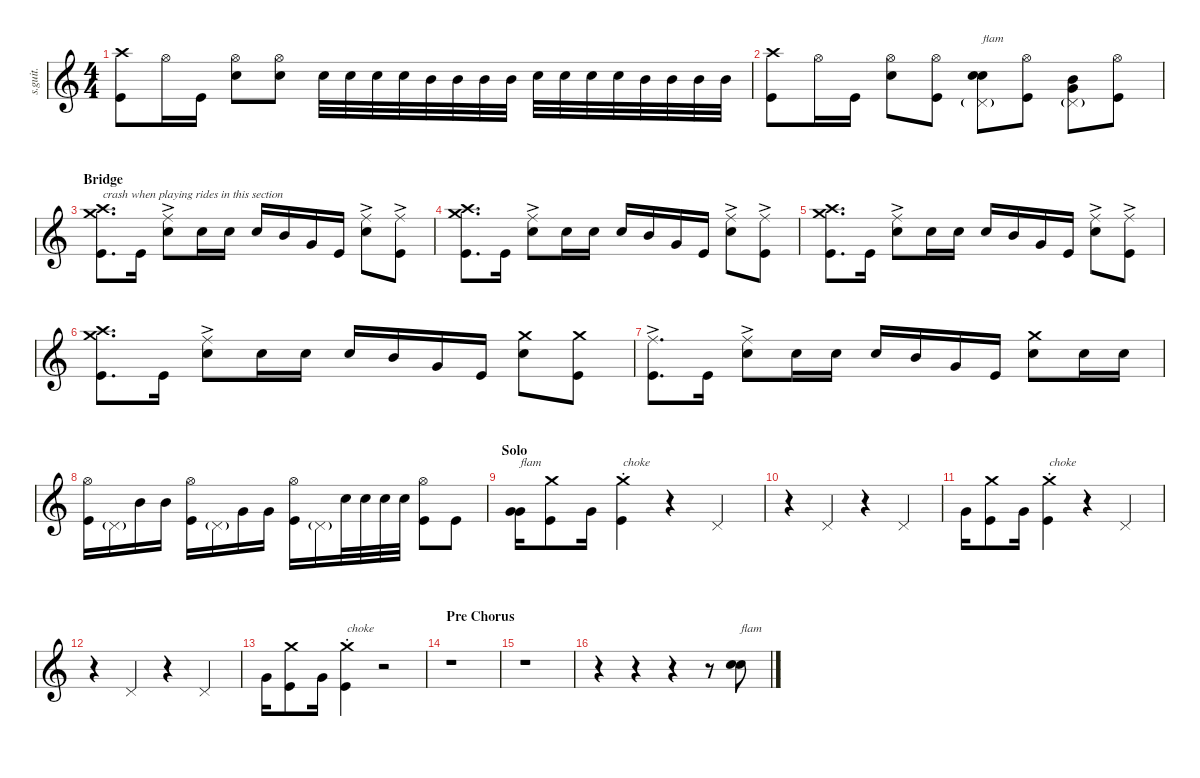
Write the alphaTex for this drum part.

\defaultSystemsLayout 4
\hideDynamics
\bracketExtendMode nobrackets
\track ("Matt Helders" "s.guit.") {instrument percussion}
\staff {score}
\articulation defaults
\ts (4 4)
\tempo (97 hide)
\clef g2
\ks c
("Crash high (hit)" "Kick (hit)").8{lyrics (0 "") lyrics (1 "") lyrics (2 "") lyrics (3 "") lyrics (4 "") dy f} "Hi-Hat (open)".16{lyrics (0 "") lyrics (1 "") lyrics (2 "") lyrics (3 "") lyrics (4 "")} "Kick (hit)".16{lyrics (0 "") lyrics (1 "") lyrics (2 "") lyrics (3 "") lyrics (4 "")} ("Hi-Hat (open)" "Snare (hit) 2").8{lyrics (0 "") lyrics (1 "") lyrics (2 "") lyrics (3 "") lyrics (4 "")} ("Hi-Hat (open)" "Snare (hit) 2").8{lyrics (0 "") lyrics (1 "") lyrics (2 "") lyrics (3 "") lyrics (4 "")} "Snare (hit) 2".32{lyrics (0 "") lyrics (1 "") lyrics (2 "") lyrics (3 "") lyrics (4 "")} "Snare (hit) 2".32{lyrics (0 "") lyrics (1 "") lyrics (2 "") lyrics (3 "") lyrics (4 "")} "Snare (hit) 2".32{lyrics (0 "") lyrics (1 "") lyrics (2 "") lyrics (3 "") lyrics (4 "")} "Snare (hit) 2".32{lyrics (0 "") lyrics (1 "") lyrics (2 "") lyrics (3 "") lyrics (4 "")} "Mid Tom (hit)".32{lyrics (0 "") lyrics (1 "") lyrics (2 "") lyrics (3 "") lyrics (4 "")} "Mid Tom (hit)".32{lyrics (0 "") lyrics (1 "") lyrics (2 "") lyrics (3 "") lyrics (4 "")} "Mid Tom (hit)".32{lyrics (0 "") lyrics (1 "") lyrics (2 "") lyrics (3 "") lyrics (4 "")} "Mid Tom (hit)".32{lyrics (0 "") lyrics (1 "") lyrics (2 "") lyrics (3 "") lyrics (4 "")} "Snare (hit) 2".32{lyrics (0 "") lyrics (1 "") lyrics (2 "") lyrics (3 "") lyrics (4 "")} "Snare (hit) 2".32{lyrics (0 "") lyrics (1 "") lyrics (2 "") lyrics (3 "") lyrics (4 "")} "Snare (hit) 2".32{lyrics (0 "") lyrics (1 "") lyrics (2 "") lyrics (3 "") lyrics (4 "")} "Snare (hit) 2".32{lyrics (0 "") lyrics (1 "") lyrics (2 "") lyrics (3 "") lyrics (4 "")} "Mid Tom (hit)".32{lyrics (0 "") lyrics (1 "") lyrics (2 "") lyrics (3 "") lyrics (4 "")} "Mid Tom (hit)".32{lyrics (0 "") lyrics (1 "") lyrics (2 "") lyrics (3 "") lyrics (4 "")} "Mid Tom (hit)".32{lyrics (0 "") lyrics (1 "") lyrics (2 "") lyrics (3 "") lyrics (4 "")} "Mid Tom (hit)".32{lyrics (0 "") lyrics (1 "") lyrics (2 "") lyrics (3 "") lyrics (4 "")} |
("Crash high (hit)" "Kick (hit)").8{lyrics (0 "") lyrics (1 "") lyrics (2 "") lyrics (3 "") lyrics (4 "")} "Hi-Hat (open)".16{lyrics (0 "") lyrics (1 "") lyrics (2 "") lyrics (3 "") lyrics (4 "")} "Kick (hit)".16{lyrics (0 "") lyrics (1 "") lyrics (2 "") lyrics (3 "") lyrics (4 "")} ("Hi-Hat (open)" "Snare (hit) 2").8{lyrics (0 "") lyrics (1 "") lyrics (2 "") lyrics (3 "") lyrics (4 "")} ("Hi-Hat (open)" "Kick (hit)").8{lyrics (0 "") lyrics (1 "") lyrics (2 "") lyrics (3 "") lyrics (4 "")} ("Snare (hit) 2" "Snare (hit) 2" "Pedal Hi-Hat (hit)"{g}).8{bd 30 txt "flam" lyrics (0 "") lyrics (1 "") lyrics (2 "") lyrics (3 "") lyrics (4 "")} ("Hi-Hat (open)" "Kick (hit)").8{lyrics (0 "") lyrics (1 "") lyrics (2 "") lyrics (3 "") lyrics (4 "")} ("Mid Tom (hit)" "Very Low Tom (hit)" "Pedal Hi-Hat (hit)"{g}).8{bd 30 lyrics (0 "") lyrics (1 "") lyrics (2 "") lyrics (3 "") lyrics (4 "")} ("Hi-Hat (open)" "Kick (hit)").8{lyrics (0 "") lyrics (1 "") lyrics (2 "") lyrics (3 "") lyrics (4 "")} |
\section ("" "Bridge")
("Crash high (hit)" "Crash medium (hit)" "Kick (hit)").8{d txt "crash when playing rides in this section" lyrics (0 "") lyrics (1 "") lyrics (2 "") lyrics (3 "") lyrics (4 "")} "Kick (hit)".16{lyrics (0 "") lyrics (1 "") lyrics (2 "") lyrics (3 "") lyrics (4 "")} ("Ride (middle)"{ac} "Snare (hit) 2").8{lyrics (0 "") lyrics (1 "") lyrics (2 "") lyrics (3 "") lyrics (4 "")} "Snare (hit) 2".16{lyrics (0 "") lyrics (1 "") lyrics (2 "") lyrics (3 "") lyrics (4 "")} "Snare (hit) 2".16{lyrics (0 "") lyrics (1 "") lyrics (2 "") lyrics (3 "") lyrics (4 "")} "Snare (hit) 2".16{lyrics (0 "") lyrics (1 "") lyrics (2 "") lyrics (3 "") lyrics (4 "")} "Mid Tom (hit)".16{lyrics (0 "") lyrics (1 "") lyrics (2 "") lyrics (3 "") lyrics (4 "")} "Very Low Tom (hit)".16{lyrics (0 "") lyrics (1 "") lyrics (2 "") lyrics (3 "") lyrics (4 "")} "Kick (hit)".16{lyrics (0 "") lyrics (1 "") lyrics (2 "") lyrics (3 "") lyrics (4 "")} ("Ride (middle)"{ac} "Snare (hit) 2").8{lyrics (0 "") lyrics (1 "") lyrics (2 "") lyrics (3 "") lyrics (4 "")} ("Ride (middle)"{ac} "Kick (hit)").8{lyrics (0 "") lyrics (1 "") lyrics (2 "") lyrics (3 "") lyrics (4 "")} |
("Crash high (hit)" "Crash medium (hit)" "Kick (hit)").8{d lyrics (0 "") lyrics (1 "") lyrics (2 "") lyrics (3 "") lyrics (4 "")} "Kick (hit)".16{lyrics (0 "") lyrics (1 "") lyrics (2 "") lyrics (3 "") lyrics (4 "")} ("Ride (middle)"{ac} "Snare (hit) 2").8{lyrics (0 "") lyrics (1 "") lyrics (2 "") lyrics (3 "") lyrics (4 "")} "Snare (hit) 2".16{lyrics (0 "") lyrics (1 "") lyrics (2 "") lyrics (3 "") lyrics (4 "")} "Snare (hit) 2".16{lyrics (0 "") lyrics (1 "") lyrics (2 "") lyrics (3 "") lyrics (4 "")} "Snare (hit) 2".16{lyrics (0 "") lyrics (1 "") lyrics (2 "") lyrics (3 "") lyrics (4 "")} "Mid Tom (hit)".16{lyrics (0 "") lyrics (1 "") lyrics (2 "") lyrics (3 "") lyrics (4 "")} "Very Low Tom (hit)".16{lyrics (0 "") lyrics (1 "") lyrics (2 "") lyrics (3 "") lyrics (4 "")} "Kick (hit)".16{lyrics (0 "") lyrics (1 "") lyrics (2 "") lyrics (3 "") lyrics (4 "")} ("Ride (middle)"{ac} "Snare (hit) 2").8{lyrics (0 "") lyrics (1 "") lyrics (2 "") lyrics (3 "") lyrics (4 "")} ("Ride (middle)"{ac} "Kick (hit)").8{lyrics (0 "") lyrics (1 "") lyrics (2 "") lyrics (3 "") lyrics (4 "")} |
("Crash high (hit)" "Crash medium (hit)" "Kick (hit)").8{d lyrics (0 "") lyrics (1 "") lyrics (2 "") lyrics (3 "") lyrics (4 "")} "Kick (hit)".16{lyrics (0 "") lyrics (1 "") lyrics (2 "") lyrics (3 "") lyrics (4 "")} ("Ride (middle)"{ac} "Snare (hit) 2").8{lyrics (0 "") lyrics (1 "") lyrics (2 "") lyrics (3 "") lyrics (4 "")} "Snare (hit) 2".16{lyrics (0 "") lyrics (1 "") lyrics (2 "") lyrics (3 "") lyrics (4 "")} "Snare (hit) 2".16{lyrics (0 "") lyrics (1 "") lyrics (2 "") lyrics (3 "") lyrics (4 "")} "Snare (hit) 2".16{lyrics (0 "") lyrics (1 "") lyrics (2 "") lyrics (3 "") lyrics (4 "")} "Mid Tom (hit)".16{lyrics (0 "") lyrics (1 "") lyrics (2 "") lyrics (3 "") lyrics (4 "")} "Very Low Tom (hit)".16{lyrics (0 "") lyrics (1 "") lyrics (2 "") lyrics (3 "") lyrics (4 "")} "Kick (hit)".16{lyrics (0 "") lyrics (1 "") lyrics (2 "") lyrics (3 "") lyrics (4 "")} ("Ride (middle)"{ac} "Snare (hit) 2").8{lyrics (0 "") lyrics (1 "") lyrics (2 "") lyrics (3 "") lyrics (4 "")} ("Ride (middle)"{ac} "Kick (hit)").8{lyrics (0 "") lyrics (1 "") lyrics (2 "") lyrics (3 "") lyrics (4 "")} |
("Crash high (hit)" "Crash medium (hit)" "Kick (hit)").8{d lyrics (0 "") lyrics (1 "") lyrics (2 "") lyrics (3 "") lyrics (4 "")} "Kick (hit)".16{lyrics (0 "") lyrics (1 "") lyrics (2 "") lyrics (3 "") lyrics (4 "")} ("Ride (middle)"{ac} "Snare (hit) 2").8{lyrics (0 "") lyrics (1 "") lyrics (2 "") lyrics (3 "") lyrics (4 "")} "Snare (hit) 2".16{lyrics (0 "") lyrics (1 "") lyrics (2 "") lyrics (3 "") lyrics (4 "")} "Snare (hit) 2".16{lyrics (0 "") lyrics (1 "") lyrics (2 "") lyrics (3 "") lyrics (4 "")} "Snare (hit) 2".16{lyrics (0 "") lyrics (1 "") lyrics (2 "") lyrics (3 "") lyrics (4 "")} "Mid Tom (hit)".16{lyrics (0 "") lyrics (1 "") lyrics (2 "") lyrics (3 "") lyrics (4 "")} "Very Low Tom (hit)".16{lyrics (0 "") lyrics (1 "") lyrics (2 "") lyrics (3 "") lyrics (4 "")} "Kick (hit)".16{lyrics (0 "") lyrics (1 "") lyrics (2 "") lyrics (3 "") lyrics (4 "")} ("Crash medium (hit)" "Snare (hit) 2").8{lyrics (0 "") lyrics (1 "") lyrics (2 "") lyrics (3 "") lyrics (4 "")} ("Crash medium (hit)" "Kick (hit)").8{lyrics (0 "") lyrics (1 "") lyrics (2 "") lyrics (3 "") lyrics (4 "")} |
("Ride (middle)"{ac} "Kick (hit)").8{d lyrics (0 "") lyrics (1 "") lyrics (2 "") lyrics (3 "") lyrics (4 "")} "Kick (hit)".16{lyrics (0 "") lyrics (1 "") lyrics (2 "") lyrics (3 "") lyrics (4 "")} ("Ride (middle)"{ac} "Snare (hit) 2").8{lyrics (0 "") lyrics (1 "") lyrics (2 "") lyrics (3 "") lyrics (4 "")} "Snare (hit) 2".16{lyrics (0 "") lyrics (1 "") lyrics (2 "") lyrics (3 "") lyrics (4 "")} "Snare (hit) 2".16{lyrics (0 "") lyrics (1 "") lyrics (2 "") lyrics (3 "") lyrics (4 "")} "Snare (hit) 2".16{lyrics (0 "") lyrics (1 "") lyrics (2 "") lyrics (3 "") lyrics (4 "")} "Mid Tom (hit)".16{lyrics (0 "") lyrics (1 "") lyrics (2 "") lyrics (3 "") lyrics (4 "")} "Very Low Tom (hit)".16{lyrics (0 "") lyrics (1 "") lyrics (2 "") lyrics (3 "") lyrics (4 "")} "Kick (hit)".16{lyrics (0 "") lyrics (1 "") lyrics (2 "") lyrics (3 "") lyrics (4 "")} ("Crash medium (hit)" "Snare (hit) 2").8{lyrics (0 "") lyrics (1 "") lyrics (2 "") lyrics (3 "") lyrics (4 "")} "Snare (hit) 2".16{lyrics (0 "") lyrics (1 "") lyrics (2 "") lyrics (3 "") lyrics (4 "")} "Snare (hit) 2".16{lyrics (0 "") lyrics (1 "") lyrics (2 "") lyrics (3 "") lyrics (4 "")} |
("Hi-Hat (open)" "Kick (hit)").16{lyrics (0 "") lyrics (1 "") lyrics (2 "") lyrics (3 "") lyrics (4 "")} "Pedal Hi-Hat (hit)"{g}.16{lyrics (0 "") lyrics (1 "") lyrics (2 "") lyrics (3 "") lyrics (4 "") dy mp} "Mid Tom (hit)".16{lyrics (0 "") lyrics (1 "") lyrics (2 "") lyrics (3 "") lyrics (4 "") dy f} "Mid Tom (hit)".16{lyrics (0 "") lyrics (1 "") lyrics (2 "") lyrics (3 "") lyrics (4 "")} ("Hi-Hat (open)" "Kick (hit)").16{lyrics (0 "") lyrics (1 "") lyrics (2 "") lyrics (3 "") lyrics (4 "")} "Pedal Hi-Hat (hit)"{g}.16{lyrics (0 "") lyrics (1 "") lyrics (2 "") lyrics (3 "") lyrics (4 "") dy mp} "Very Low Tom (hit)".16{lyrics (0 "") lyrics (1 "") lyrics (2 "") lyrics (3 "") lyrics (4 "") dy f} "Very Low Tom (hit)".16{lyrics (0 "") lyrics (1 "") lyrics (2 "") lyrics (3 "") lyrics (4 "")} ("Hi-Hat (open)" "Kick (hit)").16{lyrics (0 "") lyrics (1 "") lyrics (2 "") lyrics (3 "") lyrics (4 "")} "Pedal Hi-Hat (hit)"{g}.16{lyrics (0 "") lyrics (1 "") lyrics (2 "") lyrics (3 "") lyrics (4 "") dy mp} "Snare (hit) 2".32{lyrics (0 "") lyrics (1 "") lyrics (2 "") lyrics (3 "") lyrics (4 "") dy f} "Snare (hit) 2".32{lyrics (0 "") lyrics (1 "") lyrics (2 "") lyrics (3 "") lyrics (4 "")} "Snare (hit) 2".32{lyrics (0 "") lyrics (1 "") lyrics (2 "") lyrics (3 "") lyrics (4 "")} "Snare (hit) 2".32{lyrics (0 "") lyrics (1 "") lyrics (2 "") lyrics (3 "") lyrics (4 "")} ("Hi-Hat (open)" "Kick (hit)").8{lyrics (0 "") lyrics (1 "") lyrics (2 "") lyrics (3 "") lyrics (4 "")} "Kick (hit)".8{lyrics (0 "") lyrics (1 "") lyrics (2 "") lyrics (3 "") lyrics (4 "")} |
\section ("" "Solo")
("Very Low Tom (hit)" "Very Low Tom (hit)").16{bd 30 txt "flam" lyrics (0 "") lyrics (1 "") lyrics (2 "") lyrics (3 "") lyrics (4 "")} ("Crash medium (hit)" "Kick (hit)").8{lyrics (0 "") lyrics (1 "") lyrics (2 "") lyrics (3 "") lyrics (4 "")} "Very Low Tom (hit)".16{lyrics (0 "") lyrics (1 "") lyrics (2 "") lyrics (3 "") lyrics (4 "")} ("Crash medium (choke)" "Kick (hit)").4{txt "choke" lyrics (0 "") lyrics (1 "") lyrics (2 "") lyrics (3 "") lyrics (4 "")} r.4 "Pedal Hi-Hat (hit)".4{lyrics (0 "") lyrics (1 "") lyrics (2 "") lyrics (3 "") lyrics (4 "")} |
\tempo (92 hide)
r.4 "Pedal Hi-Hat (hit)".4{lyrics (0 "") lyrics (1 "") lyrics (2 "") lyrics (3 "") lyrics (4 "")} r.4 "Pedal Hi-Hat (hit)".4{lyrics (0 "") lyrics (1 "") lyrics (2 "") lyrics (3 "") lyrics (4 "")} |
\tempo (97 hide)
"Very Low Tom (hit)".16{lyrics (0 "") lyrics (1 "") lyrics (2 "") lyrics (3 "") lyrics (4 "")} ("Crash medium (hit)" "Kick (hit)").8{lyrics (0 "") lyrics (1 "") lyrics (2 "") lyrics (3 "") lyrics (4 "")} "Very Low Tom (hit)".16{lyrics (0 "") lyrics (1 "") lyrics (2 "") lyrics (3 "") lyrics (4 "")} ("Crash medium (choke)" "Kick (hit)").4{txt "choke" lyrics (0 "") lyrics (1 "") lyrics (2 "") lyrics (3 "") lyrics (4 "")} r.4 "Pedal Hi-Hat (hit)".4{lyrics (0 "") lyrics (1 "") lyrics (2 "") lyrics (3 "") lyrics (4 "")} |
r.4 "Pedal Hi-Hat (hit)".4{lyrics (0 "") lyrics (1 "") lyrics (2 "") lyrics (3 "") lyrics (4 "")} r.4 "Pedal Hi-Hat (hit)".4{lyrics (0 "") lyrics (1 "") lyrics (2 "") lyrics (3 "") lyrics (4 "")} |
"Very Low Tom (hit)".16{lyrics (0 "") lyrics (1 "") lyrics (2 "") lyrics (3 "") lyrics (4 "")} ("Crash medium (hit)" "Kick (hit)").8{lyrics (0 "") lyrics (1 "") lyrics (2 "") lyrics (3 "") lyrics (4 "")} "Very Low Tom (hit)".16{lyrics (0 "") lyrics (1 "") lyrics (2 "") lyrics (3 "") lyrics (4 "")} ("Crash medium (choke)" "Kick (hit)").4{txt "choke" lyrics (0 "") lyrics (1 "") lyrics (2 "") lyrics (3 "") lyrics (4 "")} r.2 |
\section ("" "Pre Chorus")
r.1 |
r.1 |
r.4 r.4 r.4 r.8 ("Snare (hit) 2" "Snare (hit) 2").8{bd 30 txt "flam" lyrics (0 "") lyrics (1 "") lyrics (2 "") lyrics (3 "") lyrics (4 "")}
